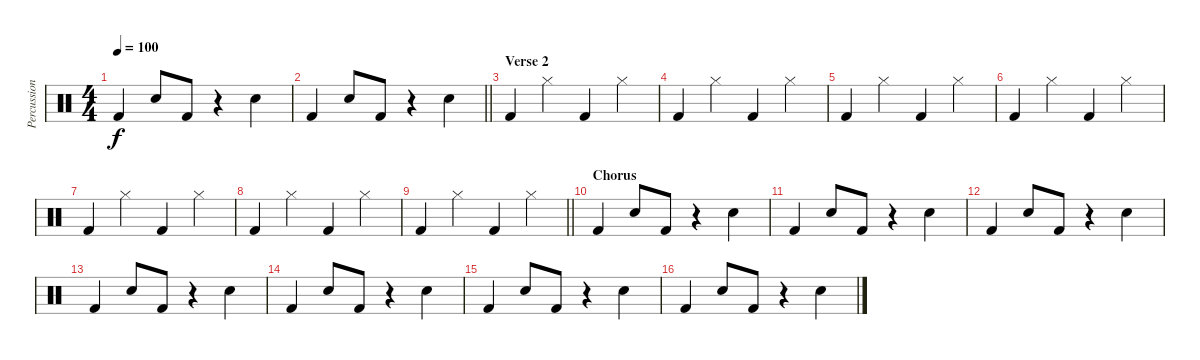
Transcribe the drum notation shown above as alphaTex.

\track ("Percussion" "Percussion") {instrument percussion}
\staff {score}
\articulation defaults
\ts (4 4)
\tempo 100
\clef neutral
\ks c "Kick (hit) 2".4{dy f} "Snare (hit) 2".8 "Kick (hit) 2".8
r.4 "Snare (hit) 2".4 |
\barLineRight lightlight "Kick (hit) 2".4 "Snare (hit) 2".8 "Kick (hit) 2".8
r.4 "Snare (hit) 2".4 |
\section ("" "Verse 2")
"Kick (hit) 2".4 "Hi-Hat (closed)".4 "Kick (hit) 2".4 "Hi-Hat (closed)".4 |
"Kick (hit) 2".4 "Hi-Hat (closed)".4 "Kick (hit) 2".4 "Hi-Hat (closed)".4 |
"Kick (hit) 2".4 "Hi-Hat (closed)".4 "Kick (hit) 2".4 "Hi-Hat (closed)".4 |
"Kick (hit) 2".4 "Hi-Hat (closed)".4 "Kick (hit) 2".4 "Hi-Hat (closed)".4 |
"Kick (hit) 2".4 "Hi-Hat (closed)".4 "Kick (hit) 2".4 "Hi-Hat (closed)".4 |
"Kick (hit) 2".4 "Hi-Hat (closed)".4 "Kick (hit) 2".4 "Hi-Hat (closed)".4 |
\barLineRight lightlight "Kick (hit) 2".4 "Hi-Hat (closed)".4 "Kick (hit) 2".4 "Hi-Hat (closed)".4
|
\section ("" "Chorus")
"Kick (hit) 2".4 "Snare (hit) 2".8 "Kick (hit) 2".8 r.4 "Snare (hit) 2".4 |
"Kick (hit) 2".4 "Snare (hit) 2".8 "Kick (hit) 2".8 r.4 "Snare (hit) 2".4 |
"Kick (hit) 2".4 "Snare (hit) 2".8 "Kick (hit) 2".8 r.4 "Snare (hit) 2".4 |
"Kick (hit) 2".4 "Snare (hit) 2".8 "Kick (hit) 2".8 r.4 "Snare (hit) 2".4 |
"Kick (hit) 2".4 "Snare (hit) 2".8 "Kick (hit) 2".8 r.4 "Snare (hit) 2".4 |
"Kick (hit) 2".4 "Snare (hit) 2".8 "Kick (hit) 2".8 r.4 "Snare (hit) 2".4 |
"Kick (hit) 2".4 "Snare (hit) 2".8 "Kick (hit) 2".8 r.4 "Snare (hit) 2".4
